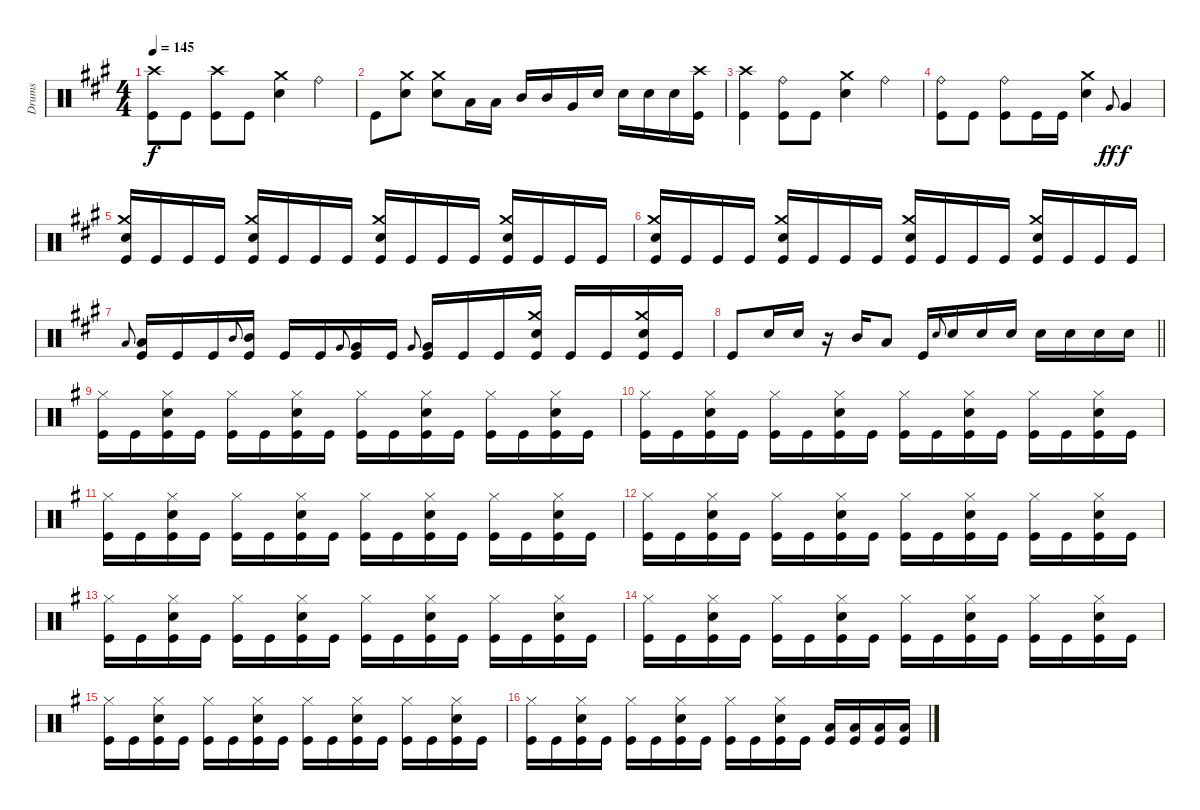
\track ("Drums" "Drums") {instrument percussion}
\staff {score}
\articulation defaults
\ts (4 4)
\tempo 145
\clef neutral
\ks f#minor
("Crash high (hit)" "Kick (hit)").8{dy f} "Kick (hit)".8 ("Crash high (hit)" "Kick (hit)").8 "Kick (hit)".8 ("Crash medium (hit)" "Snare (hit) 2").4 "Ride (bell)".4 |
"Kick (hit)".8 ("Crash medium (hit)" "Snare (hit) 2").8 ("Crash medium (hit)" "Snare (hit) 2").8 "Low Tom (hit)".16 "Low Tom (hit)".16 "Mid Tom (hit)".16 "Mid Tom (hit)".16 "Very Low Tom (hit)".16 "Snare (hit) 2".16 "Snare (hit) 2".16 "Snare (hit) 2".16 "Snare (hit) 2".16 ("Crash high (hit)" "Kick (hit)").16 |
("Crash high (hit)" "Kick (hit)").4 ("Ride (bell)" "Kick (hit)").8 "Kick (hit)".8 ("Crash medium (hit)" "Snare (hit) 2").4 "Ride (bell)".4 |
("Ride (bell)" "Kick (hit)").8 "Kick (hit)".8 ("Ride (bell)" "Kick (hit)").8 "Kick (hit)".16 "Kick (hit)".16 ("Crash medium (hit)" "Snare (hit) 2").4 "Very Low Tom (hit)".8{gr onbeat dy ff} "Very Low Tom (hit)".4{dy f} |
("Crash medium (hit)" "Snare (hit) 2" "Kick (hit)").16 "Kick (hit)".16 "Kick (hit)".16 "Kick (hit)".16 ("Crash medium (hit)" "Snare (hit) 2" "Kick (hit)").16 "Kick (hit)".16 "Kick (hit)".16 "Kick (hit)".16 ("Crash medium (hit)" "Snare (hit) 2" "Kick (hit)").16 "Kick (hit)".16 "Kick (hit)".16 "Kick (hit)".16 ("Crash medium (hit)" "Snare (hit) 2" "Kick (hit)").16 "Kick (hit)".16 "Kick (hit)".16 "Kick (hit)".16 |
("Crash medium (hit)" "Snare (hit) 2" "Kick (hit)").16 "Kick (hit)".16 "Kick (hit)".16 "Kick (hit)".16 ("Crash medium (hit)" "Snare (hit) 2" "Kick (hit)").16 "Kick (hit)".16 "Kick (hit)".16 "Kick (hit)".16 ("Crash medium (hit)" "Snare (hit) 2" "Kick (hit)").16 "Kick (hit)".16 "Kick (hit)".16 "Kick (hit)".16 ("Crash medium (hit)" "Snare (hit) 2" "Kick (hit)").16 "Kick (hit)".16 "Kick (hit)".16 "Kick (hit)".16 |
"Low Tom (hit)".8{gr onbeat} ("Low Tom (hit)" "Kick (hit)").16 "Kick (hit)".16 "Kick (hit)".16 "Mid Tom (hit)".8{gr onbeat} ("Mid Tom (hit)" "Kick (hit)").16 "Kick (hit)".16 "Kick (hit)".16 "Very Low Tom (hit)".8{gr onbeat} ("Very Low Tom (hit)" "Kick (hit)").16 "Kick (hit)".16 "Very Low Tom (hit)".8{gr onbeat} ("Very Low Tom (hit)" "Kick (hit)").16 "Kick (hit)".16 "Kick (hit)".16 ("Crash medium (hit)" "Snare (hit) 2" "Kick (hit)").16 "Kick (hit)".16 "Kick (hit)".16 ("Crash medium (hit)" "Snare (hit) 2" "Kick (hit)").16 "Kick (hit)".16 |
\barLineRight lightlight "Kick (hit)".8 "Snare (hit) 2".16 "Snare (hit) 2".16
r.16 "Mid Tom (hit)".16 "Low Tom (hit)".8 "Kick (hit)".16 "Snare (hit) 2".8{gr onbeat} "Snare (hit) 2".16 "Snare (hit) 2".16 "Snare (hit) 2".16 "Snare (hit) 2".16 "Snare (hit) 2".16 "Snare (hit) 2".16 "Snare (hit) 2".16 |
\ks eminor
("Hi-Hat (closed)" "Kick (hit)").16 "Kick (hit)".16 ("Hi-Hat (closed)" "Snare (hit) 2" "Kick (hit)").16 "Kick (hit)".16 ("Hi-Hat (closed)" "Kick (hit)").16 "Kick (hit)".16 ("Hi-Hat (closed)" "Snare (hit) 2" "Kick (hit)").16 "Kick (hit)".16 ("Hi-Hat (closed)" "Kick (hit)").16 "Kick (hit)".16 ("Hi-Hat (closed)" "Snare (hit) 2" "Kick (hit)").16 "Kick (hit)".16 ("Hi-Hat (closed)" "Kick (hit)").16 "Kick (hit)".16 ("Hi-Hat (closed)" "Snare (hit) 2" "Kick (hit)").16 "Kick (hit)".16 |
("Hi-Hat (closed)" "Kick (hit)").16 "Kick (hit)".16 ("Hi-Hat (closed)" "Snare (hit) 2" "Kick (hit)").16 "Kick (hit)".16 ("Hi-Hat (closed)" "Kick (hit)").16 "Kick (hit)".16 ("Hi-Hat (closed)" "Snare (hit) 2" "Kick (hit)").16 "Kick (hit)".16 ("Hi-Hat (closed)" "Kick (hit)").16 "Kick (hit)".16 ("Hi-Hat (closed)" "Snare (hit) 2" "Kick (hit)").16 "Kick (hit)".16 ("Hi-Hat (closed)" "Kick (hit)").16 "Kick (hit)".16 ("Hi-Hat (closed)" "Snare (hit) 2" "Kick (hit)").16 "Kick (hit)".16 |
("Hi-Hat (closed)" "Kick (hit)").16 "Kick (hit)".16 ("Hi-Hat (closed)" "Snare (hit) 2" "Kick (hit)").16 "Kick (hit)".16 ("Hi-Hat (closed)" "Kick (hit)").16 "Kick (hit)".16 ("Hi-Hat (closed)" "Snare (hit) 2" "Kick (hit)").16 "Kick (hit)".16 ("Hi-Hat (closed)" "Kick (hit)").16 "Kick (hit)".16 ("Hi-Hat (closed)" "Snare (hit) 2" "Kick (hit)").16 "Kick (hit)".16 ("Hi-Hat (closed)" "Kick (hit)").16 "Kick (hit)".16 ("Hi-Hat (closed)" "Snare (hit) 2" "Kick (hit)").16 "Kick (hit)".16 |
("Hi-Hat (closed)" "Kick (hit)").16 "Kick (hit)".16 ("Hi-Hat (closed)" "Snare (hit) 2" "Kick (hit)").16 "Kick (hit)".16 ("Hi-Hat (closed)" "Kick (hit)").16 "Kick (hit)".16 ("Hi-Hat (closed)" "Snare (hit) 2" "Kick (hit)").16 "Kick (hit)".16 ("Hi-Hat (closed)" "Kick (hit)").16 "Kick (hit)".16 ("Hi-Hat (closed)" "Snare (hit) 2" "Kick (hit)").16 "Kick (hit)".16 ("Hi-Hat (closed)" "Kick (hit)").16 "Kick (hit)".16 ("Hi-Hat (closed)" "Snare (hit) 2" "Kick (hit)").16 "Kick (hit)".16 |
("Hi-Hat (closed)" "Kick (hit)").16 "Kick (hit)".16 ("Hi-Hat (closed)" "Snare (hit) 2" "Kick (hit)").16 "Kick (hit)".16 ("Hi-Hat (closed)" "Kick (hit)").16 "Kick (hit)".16 ("Hi-Hat (closed)" "Snare (hit) 2" "Kick (hit)").16 "Kick (hit)".16 ("Hi-Hat (closed)" "Kick (hit)").16 "Kick (hit)".16 ("Hi-Hat (closed)" "Snare (hit) 2" "Kick (hit)").16 "Kick (hit)".16 ("Hi-Hat (closed)" "Kick (hit)").16 "Kick (hit)".16 ("Hi-Hat (closed)" "Snare (hit) 2" "Kick (hit)").16 "Kick (hit)".16 |
("Hi-Hat (closed)" "Kick (hit)").16 "Kick (hit)".16 ("Hi-Hat (closed)" "Snare (hit) 2" "Kick (hit)").16 "Kick (hit)".16 ("Hi-Hat (closed)" "Kick (hit)").16 "Kick (hit)".16 ("Hi-Hat (closed)" "Snare (hit) 2" "Kick (hit)").16 "Kick (hit)".16 ("Hi-Hat (closed)" "Kick (hit)").16 "Kick (hit)".16 ("Hi-Hat (closed)" "Snare (hit) 2" "Kick (hit)").16 "Kick (hit)".16 ("Hi-Hat (closed)" "Kick (hit)").16 "Kick (hit)".16 ("Hi-Hat (closed)" "Snare (hit) 2" "Kick (hit)").16 "Kick (hit)".16 |
("Hi-Hat (closed)" "Kick (hit)").16 "Kick (hit)".16 ("Hi-Hat (closed)" "Snare (hit) 2" "Kick (hit)").16 "Kick (hit)".16 ("Hi-Hat (closed)" "Kick (hit)").16 "Kick (hit)".16 ("Hi-Hat (closed)" "Snare (hit) 2" "Kick (hit)").16 "Kick (hit)".16 ("Hi-Hat (closed)" "Kick (hit)").16 "Kick (hit)".16 ("Hi-Hat (closed)" "Snare (hit) 2" "Kick (hit)").16 "Kick (hit)".16 ("Hi-Hat (closed)" "Kick (hit)").16 "Kick (hit)".16 ("Hi-Hat (closed)" "Snare (hit) 2" "Kick (hit)").16 "Kick (hit)".16 |
("Hi-Hat (closed)" "Kick (hit)").16 "Kick (hit)".16 ("Hi-Hat (closed)" "Snare (hit) 2" "Kick (hit)").16 "Kick (hit)".16 ("Hi-Hat (closed)" "Kick (hit)").16 "Kick (hit)".16 ("Hi-Hat (closed)" "Snare (hit) 2" "Kick (hit)").16 "Kick (hit)".16 ("Hi-Hat (closed)" "Kick (hit)").16 "Kick (hit)".16 ("Hi-Hat (closed)" "Snare (hit) 2" "Kick (hit)").16 "Kick (hit)".16 ("Low Tom (hit)" "Kick (hit)").16 ("Low Tom (hit)" "Kick (hit)").16 ("Low Tom (hit)" "Kick (hit)").16 ("Low Tom (hit)" "Kick (hit)").16
